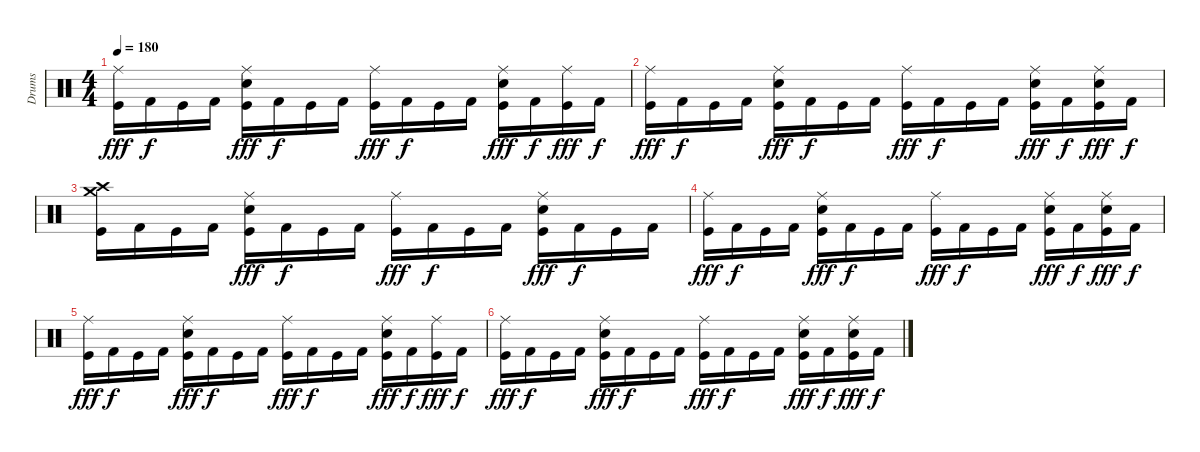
\track ("Drums" "Drums") {instrument percussion}
\staff {score}
\articulation defaults
\ts (4 4)
\tempo 180
\clef neutral
\ks c
("Ride (middle)" "Kick (hit)").16{dy fff} "Kick (hit) 2".16{dy f} "Kick (hit)".16 "Kick (hit) 2".16 ("Ride (middle)" "Electric Snare (hit)" "Kick (hit)").16{dy fff} "Kick (hit) 2".16{dy f} "Kick (hit)".16 "Kick (hit) 2".16 ("Ride (middle)" "Kick (hit)").16{dy fff} "Kick (hit) 2".16{dy f} "Kick (hit)".16 "Kick (hit) 2".16 ("Ride (middle)" "Electric Snare (hit)" "Kick (hit)").16{dy fff} "Kick (hit) 2".16{dy f} ("Ride (middle)" "Kick (hit)").16{dy fff} "Kick (hit) 2".16{dy f} |
("Ride (middle)" "Kick (hit)").16{dy fff} "Kick (hit) 2".16{dy f} "Kick (hit)".16 "Kick (hit) 2".16 ("Ride (middle)" "Electric Snare (hit)" "Kick (hit)").16{dy fff} "Kick (hit) 2".16{dy f} "Kick (hit)".16 "Kick (hit) 2".16 ("Ride (middle)" "Kick (hit)").16{dy fff} "Kick (hit) 2".16{dy f} "Kick (hit)".16 "Kick (hit) 2".16 ("Ride (middle)" "Electric Snare (hit)" "Kick (hit)").16{dy fff} "Kick (hit) 2".16{dy f} ("Ride (middle)" "Electric Snare (hit)" "Kick (hit)").16{dy fff} "Kick (hit) 2".16{dy f} |
("Crash medium (hit)" "Crash high (hit)" "Kick (hit)").16{volume 0} "Kick (hit) 2".16 "Kick (hit)".16 "Kick (hit) 2".16 ("Ride (middle)" "Electric Snare (hit)" "Kick (hit)").16{dy fff} "Kick (hit) 2".16{dy f} "Kick (hit)".16 "Kick (hit) 2".16 ("Ride (middle)" "Kick (hit)").16{dy fff} "Kick (hit) 2".16{dy f} "Kick (hit)".16 "Kick (hit) 2".16 ("Ride (middle)" "Electric Snare (hit)" "Kick (hit)").16{dy fff} "Kick (hit) 2".16{dy f} "Kick (hit)".16 "Kick (hit) 2".16 |
("Ride (middle)" "Kick (hit)").16{dy fff} "Kick (hit) 2".16{dy f} "Kick (hit)".16 "Kick (hit) 2".16 ("Ride (middle)" "Electric Snare (hit)" "Kick (hit)").16{dy fff} "Kick (hit) 2".16{dy f} "Kick (hit)".16 "Kick (hit) 2".16 ("Ride (middle)" "Kick (hit)").16{dy fff} "Kick (hit) 2".16{dy f} "Kick (hit)".16 "Kick (hit) 2".16 ("Ride (middle)" "Electric Snare (hit)" "Kick (hit)").16{dy fff} "Kick (hit) 2".16{dy f} ("Ride (middle)" "Electric Snare (hit)" "Kick (hit)").16{dy fff} "Kick (hit) 2".16{dy f} |
("Ride (middle)" "Kick (hit)").16{dy fff} "Kick (hit) 2".16{dy f} "Kick (hit)".16 "Kick (hit) 2".16 ("Ride (middle)" "Electric Snare (hit)" "Kick (hit)").16{dy fff} "Kick (hit) 2".16{dy f} "Kick (hit)".16 "Kick (hit) 2".16 ("Ride (middle)" "Kick (hit)").16{dy fff} "Kick (hit) 2".16{dy f} "Kick (hit)".16 "Kick (hit) 2".16 ("Ride (middle)" "Electric Snare (hit)" "Kick (hit)").16{dy fff} "Kick (hit) 2".16{dy f} ("Ride (middle)" "Kick (hit)").16{dy fff} "Kick (hit) 2".16{dy f} |
("Ride (middle)" "Kick (hit)").16{dy fff} "Kick (hit) 2".16{dy f} "Kick (hit)".16 "Kick (hit) 2".16 ("Ride (middle)" "Electric Snare (hit)" "Kick (hit)").16{dy fff} "Kick (hit) 2".16{dy f} "Kick (hit)".16 "Kick (hit) 2".16 ("Ride (middle)" "Kick (hit)").16{dy fff} "Kick (hit) 2".16{dy f} "Kick (hit)".16 "Kick (hit) 2".16 ("Ride (middle)" "Electric Snare (hit)" "Kick (hit)").16{dy fff} "Kick (hit) 2".16{dy f} ("Ride (middle)" "Electric Snare (hit)" "Kick (hit)").16{dy fff} "Kick (hit) 2".16{dy f}
